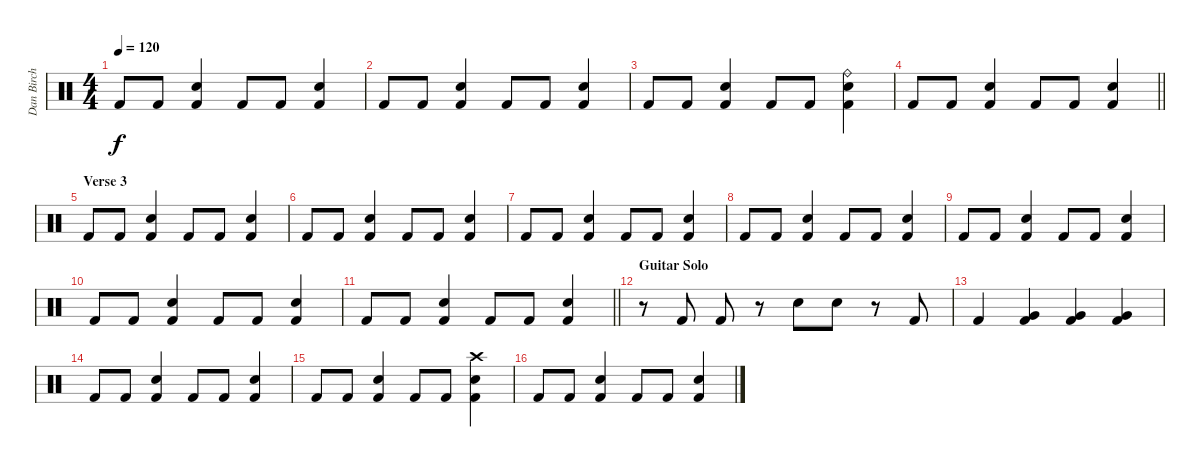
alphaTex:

\track ("Dan Birch" "Dan Birch") {instrument percussion}
\staff {score}
\articulation defaults
\ts (4 4)
\tempo 120
\clef neutral
\ks c "Kick (hit) 2".8{dy f} "Kick (hit) 2".8
("Snare (hit) 2" "Kick (hit) 2").4 "Kick (hit) 2".8 "Kick (hit) 2".8 ("Snare (hit) 2" "Kick (hit) 2").4 |
"Kick (hit) 2".8 "Kick (hit) 2".8 ("Snare (hit) 2" "Kick (hit) 2").4 "Kick (hit) 2".8 "Kick (hit) 2".8 ("Snare (hit) 2" "Kick (hit) 2").4 |
"Kick (hit) 2".8 "Kick (hit) 2".8 ("Snare (hit) 2" "Kick (hit) 2").4 "Kick (hit) 2".8 "Kick (hit) 2".8 ("Ride (bell)" "Snare (hit) 2" "Kick (hit) 2").4 |
\barLineRight lightlight "Kick (hit) 2".8 "Kick (hit) 2".8
("Snare (hit) 2" "Kick (hit) 2").4 "Kick (hit) 2".8 "Kick (hit) 2".8 ("Snare (hit) 2" "Kick (hit) 2").4 |
\section ("" "Verse 3")
"Kick (hit) 2".8 "Kick (hit) 2".8 ("Snare (hit) 2" "Kick (hit) 2").4 "Kick (hit) 2".8 "Kick (hit) 2".8 ("Snare (hit) 2" "Kick (hit) 2").4 |
"Kick (hit) 2".8 "Kick (hit) 2".8 ("Snare (hit) 2" "Kick (hit) 2").4 "Kick (hit) 2".8 "Kick (hit) 2".8 ("Snare (hit) 2" "Kick (hit) 2").4 |
"Kick (hit) 2".8 "Kick (hit) 2".8 ("Snare (hit) 2" "Kick (hit) 2").4 "Kick (hit) 2".8 "Kick (hit) 2".8 ("Snare (hit) 2" "Kick (hit) 2").4 |
"Kick (hit) 2".8 "Kick (hit) 2".8 ("Snare (hit) 2" "Kick (hit) 2").4 "Kick (hit) 2".8 "Kick (hit) 2".8 ("Snare (hit) 2" "Kick (hit) 2").4 |
"Kick (hit) 2".8 "Kick (hit) 2".8 ("Snare (hit) 2" "Kick (hit) 2").4 "Kick (hit) 2".8 "Kick (hit) 2".8 ("Snare (hit) 2" "Kick (hit) 2").4 |
"Kick (hit) 2".8 "Kick (hit) 2".8 ("Snare (hit) 2" "Kick (hit) 2").4 "Kick (hit) 2".8 "Kick (hit) 2".8 ("Snare (hit) 2" "Kick (hit) 2").4 |
\barLineRight lightlight "Kick (hit) 2".8 "Kick (hit) 2".8
("Snare (hit) 2" "Kick (hit) 2").4 "Kick (hit) 2".8 "Kick (hit) 2".8 ("Snare (hit) 2" "Kick (hit) 2").4 |
\section ("" "Guitar Solo")
r.8 "Kick (hit) 2".8 "Kick (hit) 2".8 r.8 "Snare (hit) 2".8 "Snare (hit) 2".8 r.8 "Kick (hit) 2".8 |
"Kick (hit) 2".4 ("Very Low Tom (hit)" "Kick (hit) 2").4 ("Very Low Tom (hit)" "Kick (hit) 2").4 ("Very Low Tom (hit)" "Kick (hit) 2").4 |
"Kick (hit) 2".8 "Kick (hit) 2".8 ("Snare (hit) 2" "Kick (hit) 2").4 "Kick (hit) 2".8 "Kick (hit) 2".8 ("Snare (hit) 2" "Kick (hit) 2").4 |
"Kick (hit) 2".8 "Kick (hit) 2".8 ("Snare (hit) 2" "Kick (hit) 2").4 "Kick (hit) 2".8 "Kick (hit) 2".8 ("Crash high (hit)" "Snare (hit) 2" "Kick (hit) 2").4 |
"Kick (hit) 2".8 "Kick (hit) 2".8 ("Snare (hit) 2" "Kick (hit) 2").4 "Kick (hit) 2".8 "Kick (hit) 2".8 ("Snare (hit) 2" "Kick (hit) 2").4
